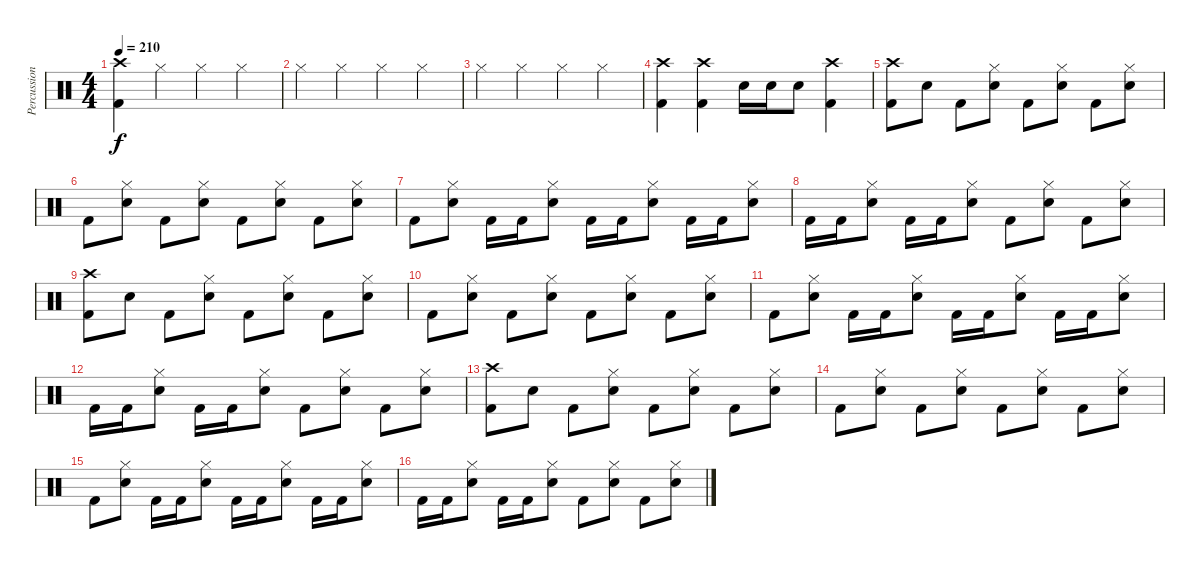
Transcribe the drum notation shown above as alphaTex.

\track ("Percussions" "Percussion") {instrument percussion}
\staff {score}
\articulation defaults
\ts (4 4)
\tempo 210
\clef neutral
\ks c
("Crash high (hit)" "Kick (hit) 2").4{dy f} "Hi-Hat (closed)".4 "Hi-Hat (closed)".4 "Hi-Hat (closed)".4 |
"Hi-Hat (closed)".4 "Hi-Hat (closed)".4 "Hi-Hat (closed)".4 "Hi-Hat (closed)".4 |
"Hi-Hat (closed)".4 "Hi-Hat (closed)".4 "Hi-Hat (closed)".4 "Hi-Hat (closed)".4 |
("Crash high (hit)" "Kick (hit) 2").4 ("Crash high (hit)" "Kick (hit) 2").4 "Electric Snare (hit)".16 "Electric Snare (hit)".16 "Electric Snare (hit)".8 ("Crash high (hit)" "Kick (hit) 2").4 |
("Crash high (hit)" "Kick (hit) 2").8 "Electric Snare (hit)".8 "Kick (hit) 2".8 ("Hi-Hat (closed)" "Electric Snare (hit)").8 "Kick (hit) 2".8 ("Hi-Hat (closed)" "Electric Snare (hit)").8 "Kick (hit) 2".8 ("Hi-Hat (closed)" "Electric Snare (hit)").8 |
"Kick (hit) 2".8 ("Hi-Hat (closed)" "Electric Snare (hit)").8 "Kick (hit) 2".8 ("Hi-Hat (closed)" "Electric Snare (hit)").8 "Kick (hit) 2".8 ("Hi-Hat (closed)" "Electric Snare (hit)").8 "Kick (hit) 2".8 ("Hi-Hat (closed)" "Electric Snare (hit)").8 |
"Kick (hit) 2".8 ("Hi-Hat (closed)" "Electric Snare (hit)").8 "Kick (hit) 2".16 "Kick (hit) 2".16 ("Hi-Hat (closed)" "Electric Snare (hit)").8 "Kick (hit) 2".16 "Kick (hit) 2".16 ("Hi-Hat (closed)" "Electric Snare (hit)").8 "Kick (hit) 2".16 "Kick (hit) 2".16 ("Hi-Hat (closed)" "Electric Snare (hit)").8 |
"Kick (hit) 2".16 "Kick (hit) 2".16 ("Hi-Hat (closed)" "Electric Snare (hit)").8 "Kick (hit) 2".16 "Kick (hit) 2".16 ("Hi-Hat (closed)" "Electric Snare (hit)").8 "Kick (hit) 2".8 ("Hi-Hat (closed)" "Electric Snare (hit)").8 "Kick (hit) 2".8 ("Hi-Hat (closed)" "Electric Snare (hit)").8 |
("Crash high (hit)" "Kick (hit) 2").8 "Electric Snare (hit)".8 "Kick (hit) 2".8 ("Hi-Hat (closed)" "Electric Snare (hit)").8 "Kick (hit) 2".8 ("Hi-Hat (closed)" "Electric Snare (hit)").8 "Kick (hit) 2".8 ("Hi-Hat (closed)" "Electric Snare (hit)").8 |
"Kick (hit) 2".8 ("Hi-Hat (closed)" "Electric Snare (hit)").8 "Kick (hit) 2".8 ("Hi-Hat (closed)" "Electric Snare (hit)").8 "Kick (hit) 2".8 ("Hi-Hat (closed)" "Electric Snare (hit)").8 "Kick (hit) 2".8 ("Hi-Hat (closed)" "Electric Snare (hit)").8 |
"Kick (hit) 2".8 ("Hi-Hat (closed)" "Electric Snare (hit)").8 "Kick (hit) 2".16 "Kick (hit) 2".16 ("Hi-Hat (closed)" "Electric Snare (hit)").8 "Kick (hit) 2".16 "Kick (hit) 2".16 ("Hi-Hat (closed)" "Electric Snare (hit)").8 "Kick (hit) 2".16 "Kick (hit) 2".16 ("Hi-Hat (closed)" "Electric Snare (hit)").8 |
"Kick (hit) 2".16 "Kick (hit) 2".16 ("Hi-Hat (closed)" "Electric Snare (hit)").8 "Kick (hit) 2".16 "Kick (hit) 2".16 ("Hi-Hat (closed)" "Electric Snare (hit)").8 "Kick (hit) 2".8 ("Hi-Hat (closed)" "Electric Snare (hit)").8 "Kick (hit) 2".8 ("Hi-Hat (closed)" "Electric Snare (hit)").8 |
("Crash high (hit)" "Kick (hit) 2").8 "Electric Snare (hit)".8 "Kick (hit) 2".8 ("Hi-Hat (closed)" "Electric Snare (hit)").8 "Kick (hit) 2".8 ("Hi-Hat (closed)" "Electric Snare (hit)").8 "Kick (hit) 2".8 ("Hi-Hat (closed)" "Electric Snare (hit)").8 |
"Kick (hit) 2".8 ("Hi-Hat (closed)" "Electric Snare (hit)").8 "Kick (hit) 2".8 ("Hi-Hat (closed)" "Electric Snare (hit)").8 "Kick (hit) 2".8 ("Hi-Hat (closed)" "Electric Snare (hit)").8 "Kick (hit) 2".8 ("Hi-Hat (closed)" "Electric Snare (hit)").8 |
"Kick (hit) 2".8 ("Hi-Hat (closed)" "Electric Snare (hit)").8 "Kick (hit) 2".16 "Kick (hit) 2".16 ("Hi-Hat (closed)" "Electric Snare (hit)").8 "Kick (hit) 2".16 "Kick (hit) 2".16 ("Hi-Hat (closed)" "Electric Snare (hit)").8 "Kick (hit) 2".16 "Kick (hit) 2".16 ("Hi-Hat (closed)" "Electric Snare (hit)").8 |
"Kick (hit) 2".16 "Kick (hit) 2".16 ("Hi-Hat (closed)" "Electric Snare (hit)").8 "Kick (hit) 2".16 "Kick (hit) 2".16 ("Hi-Hat (closed)" "Electric Snare (hit)").8 "Kick (hit) 2".8 ("Hi-Hat (closed)" "Electric Snare (hit)").8 "Kick (hit) 2".8 ("Hi-Hat (closed)" "Electric Snare (hit)").8
